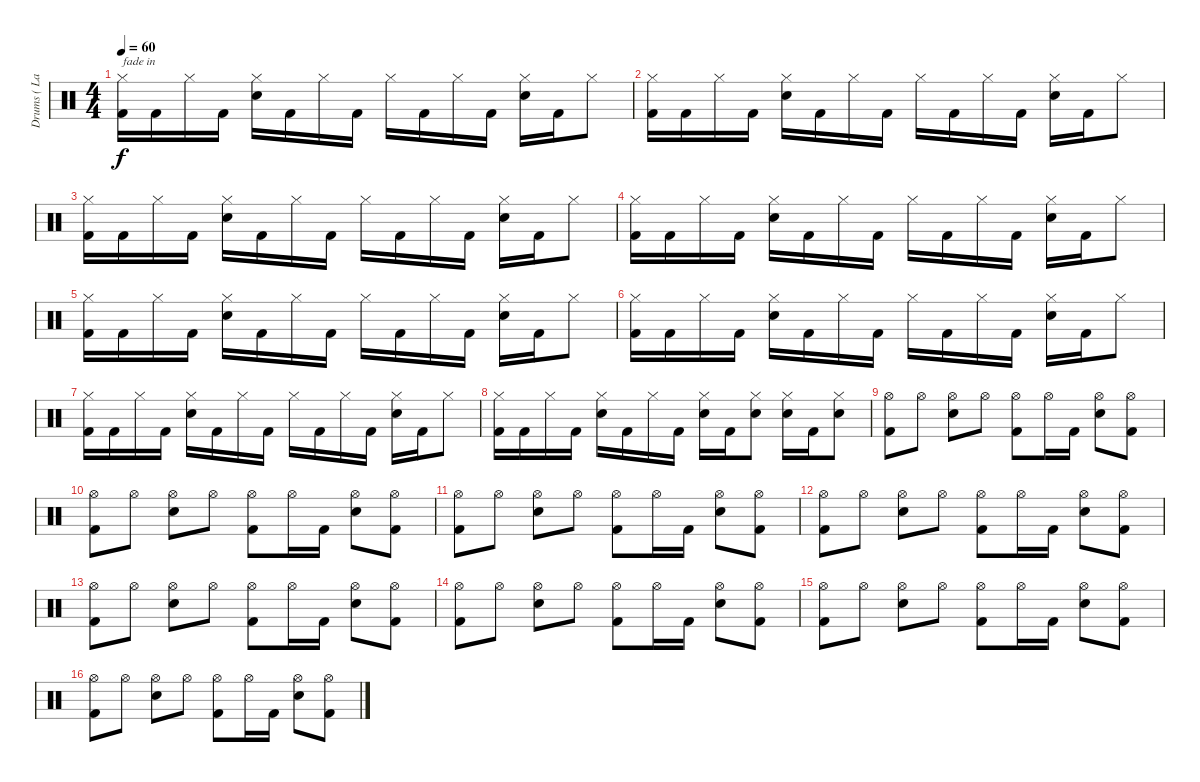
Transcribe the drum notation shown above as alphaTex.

\track ("Drums ( Lars )" "Drums ( La") {instrument percussion}
\staff {score}
\articulation defaults
\ts (4 4)
\tempo 60
\clef neutral
\ks c
("Kick (hit) 2" "Hi-Hat (closed)").16{txt "fade in" dy f} "Kick (hit) 2".16 "Hi-Hat (closed)".16 "Kick (hit) 2".16 ("Snare (hit) 2" "Hi-Hat (closed)").16 "Kick (hit) 2".16 "Hi-Hat (closed)".16 "Kick (hit) 2".16 "Hi-Hat (closed)".16 "Kick (hit) 2".16 "Hi-Hat (closed)".16 "Kick (hit) 2".16 ("Snare (hit) 2" "Hi-Hat (closed)").16 "Kick (hit) 2".16 "Hi-Hat (closed)".8 |
("Kick (hit) 2" "Hi-Hat (closed)").16 "Kick (hit) 2".16 "Hi-Hat (closed)".16 "Kick (hit) 2".16 ("Snare (hit) 2" "Hi-Hat (closed)").16 "Kick (hit) 2".16 "Hi-Hat (closed)".16 "Kick (hit) 2".16 "Hi-Hat (closed)".16 "Kick (hit) 2".16 "Hi-Hat (closed)".16 "Kick (hit) 2".16 ("Snare (hit) 2" "Hi-Hat (closed)").16 "Kick (hit) 2".16 "Hi-Hat (closed)".8 |
("Kick (hit) 2" "Hi-Hat (closed)").16 "Kick (hit) 2".16 "Hi-Hat (closed)".16 "Kick (hit) 2".16 ("Snare (hit) 2" "Hi-Hat (closed)").16 "Kick (hit) 2".16 "Hi-Hat (closed)".16 "Kick (hit) 2".16 "Hi-Hat (closed)".16 "Kick (hit) 2".16 "Hi-Hat (closed)".16 "Kick (hit) 2".16 ("Snare (hit) 2" "Hi-Hat (closed)").16 "Kick (hit) 2".16 "Hi-Hat (closed)".8 |
("Kick (hit) 2" "Hi-Hat (closed)").16 "Kick (hit) 2".16 "Hi-Hat (closed)".16 "Kick (hit) 2".16 ("Snare (hit) 2" "Hi-Hat (closed)").16 "Kick (hit) 2".16 "Hi-Hat (closed)".16 "Kick (hit) 2".16 "Hi-Hat (closed)".16 "Kick (hit) 2".16 "Hi-Hat (closed)".16 "Kick (hit) 2".16 ("Snare (hit) 2" "Hi-Hat (closed)").16 "Kick (hit) 2".16 "Hi-Hat (closed)".8 |
("Kick (hit) 2" "Hi-Hat (closed)").16 "Kick (hit) 2".16 "Hi-Hat (closed)".16 "Kick (hit) 2".16 ("Snare (hit) 2" "Hi-Hat (closed)").16 "Kick (hit) 2".16 "Hi-Hat (closed)".16 "Kick (hit) 2".16 "Hi-Hat (closed)".16 "Kick (hit) 2".16 "Hi-Hat (closed)".16 "Kick (hit) 2".16 ("Snare (hit) 2" "Hi-Hat (closed)").16 "Kick (hit) 2".16 "Hi-Hat (closed)".8 |
("Kick (hit) 2" "Hi-Hat (closed)").16 "Kick (hit) 2".16 "Hi-Hat (closed)".16 "Kick (hit) 2".16 ("Snare (hit) 2" "Hi-Hat (closed)").16 "Kick (hit) 2".16 "Hi-Hat (closed)".16 "Kick (hit) 2".16 "Hi-Hat (closed)".16 "Kick (hit) 2".16 "Hi-Hat (closed)".16 "Kick (hit) 2".16 ("Snare (hit) 2" "Hi-Hat (closed)").16 "Kick (hit) 2".16 "Hi-Hat (closed)".8 |
("Kick (hit) 2" "Hi-Hat (closed)").16 "Kick (hit) 2".16 "Hi-Hat (closed)".16 "Kick (hit) 2".16 ("Snare (hit) 2" "Hi-Hat (closed)").16 "Kick (hit) 2".16 "Hi-Hat (closed)".16 "Kick (hit) 2".16 "Hi-Hat (closed)".16 "Kick (hit) 2".16 "Hi-Hat (closed)".16 "Kick (hit) 2".16 ("Snare (hit) 2" "Hi-Hat (closed)").16 "Kick (hit) 2".16 "Hi-Hat (closed)".8 |
("Kick (hit) 2" "Hi-Hat (closed)").16 "Kick (hit) 2".16 "Hi-Hat (closed)".16 "Kick (hit) 2".16 ("Snare (hit) 2" "Hi-Hat (closed)").16 "Kick (hit) 2".16 "Hi-Hat (closed)".16 "Kick (hit) 2".16 ("Snare (hit) 2" "Hi-Hat (closed)").16 "Kick (hit) 2".16 ("Snare (hit) 2" "Hi-Hat (closed)").8 ("Snare (hit) 2" "Hi-Hat (closed)").16 "Kick (hit) 2".16 ("Snare (hit) 2" "Hi-Hat (closed)").8 |
("Kick (hit) 2" "Hi-Hat (open)").8 "Hi-Hat (open)".8 ("Snare (hit) 2" "Hi-Hat (open)").8 "Hi-Hat (open)".8 ("Kick (hit) 2" "Hi-Hat (open)").8 "Hi-Hat (open)".16 "Kick (hit) 2".16 ("Snare (hit) 2" "Hi-Hat (open)").8 ("Kick (hit) 2" "Hi-Hat (open)").8 |
("Kick (hit) 2" "Hi-Hat (open)").8 "Hi-Hat (open)".8 ("Snare (hit) 2" "Hi-Hat (open)").8 "Hi-Hat (open)".8 ("Kick (hit) 2" "Hi-Hat (open)").8 "Hi-Hat (open)".16 "Kick (hit) 2".16 ("Snare (hit) 2" "Hi-Hat (open)").8 ("Kick (hit) 2" "Hi-Hat (open)").8 |
("Kick (hit) 2" "Hi-Hat (open)").8 "Hi-Hat (open)".8 ("Snare (hit) 2" "Hi-Hat (open)").8 "Hi-Hat (open)".8 ("Kick (hit) 2" "Hi-Hat (open)").8 "Hi-Hat (open)".16 "Kick (hit) 2".16 ("Snare (hit) 2" "Hi-Hat (open)").8 ("Kick (hit) 2" "Hi-Hat (open)").8 |
("Kick (hit) 2" "Hi-Hat (open)").8 "Hi-Hat (open)".8 ("Snare (hit) 2" "Hi-Hat (open)").8 "Hi-Hat (open)".8 ("Kick (hit) 2" "Hi-Hat (open)").8 "Hi-Hat (open)".16 "Kick (hit) 2".16 ("Snare (hit) 2" "Hi-Hat (open)").8 ("Kick (hit) 2" "Hi-Hat (open)").8 |
("Kick (hit) 2" "Hi-Hat (open)").8 "Hi-Hat (open)".8 ("Snare (hit) 2" "Hi-Hat (open)").8 "Hi-Hat (open)".8 ("Kick (hit) 2" "Hi-Hat (open)").8 "Hi-Hat (open)".16 "Kick (hit) 2".16 ("Snare (hit) 2" "Hi-Hat (open)").8 ("Kick (hit) 2" "Hi-Hat (open)").8 |
("Kick (hit) 2" "Hi-Hat (open)").8 "Hi-Hat (open)".8 ("Snare (hit) 2" "Hi-Hat (open)").8 "Hi-Hat (open)".8 ("Kick (hit) 2" "Hi-Hat (open)").8 "Hi-Hat (open)".16 "Kick (hit) 2".16 ("Snare (hit) 2" "Hi-Hat (open)").8 ("Kick (hit) 2" "Hi-Hat (open)").8 |
("Kick (hit) 2" "Hi-Hat (open)").8 "Hi-Hat (open)".8 ("Snare (hit) 2" "Hi-Hat (open)").8 "Hi-Hat (open)".8 ("Kick (hit) 2" "Hi-Hat (open)").8 "Hi-Hat (open)".16 "Kick (hit) 2".16 ("Snare (hit) 2" "Hi-Hat (open)").8 ("Kick (hit) 2" "Hi-Hat (open)").8 |
("Kick (hit) 2" "Hi-Hat (open)").8 "Hi-Hat (open)".8 ("Snare (hit) 2" "Hi-Hat (open)").8 "Hi-Hat (open)".8 ("Kick (hit) 2" "Hi-Hat (open)").8 "Hi-Hat (open)".16 "Kick (hit) 2".16 ("Snare (hit) 2" "Hi-Hat (open)").8 ("Kick (hit) 2" "Hi-Hat (open)").8
